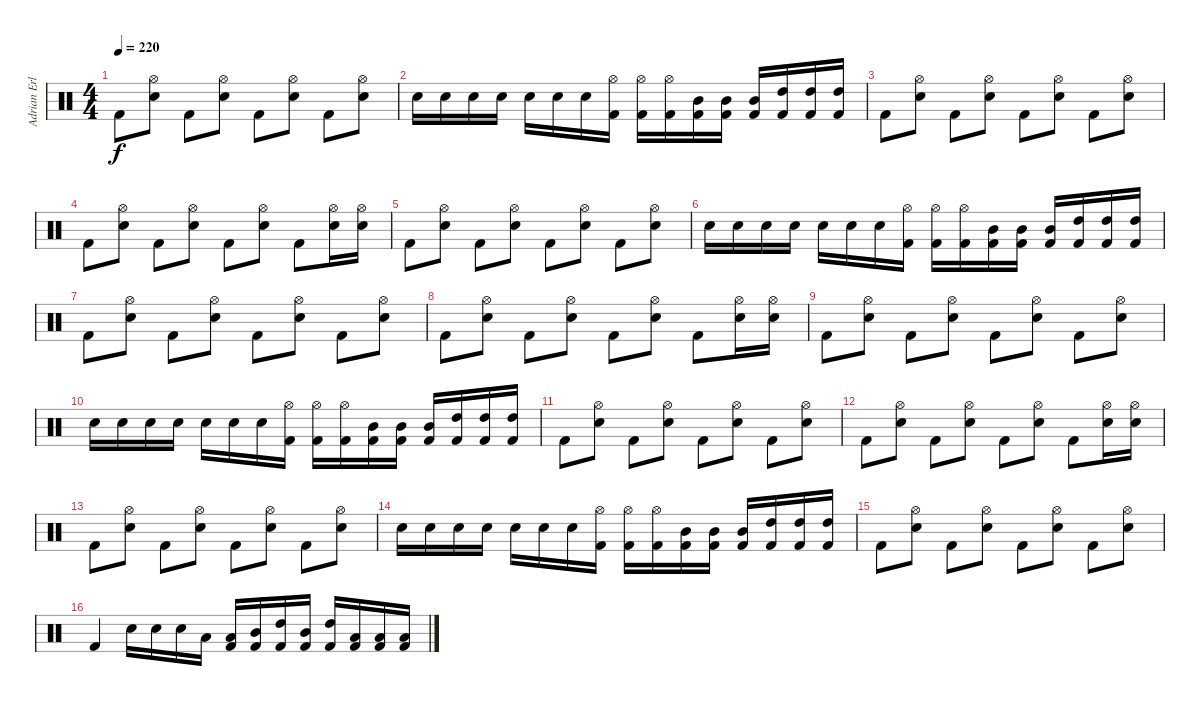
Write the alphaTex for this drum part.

\track ("Adrian Erlandsson" "Adrian Erl") {instrument percussion}
\staff {score}
\articulation defaults
\ts (4 4)
\tempo 220
\clef neutral
\ks c "Kick (hit) 2".8{dy f}
("Hi-Hat (open)" "Snare (hit) 2").8 "Kick (hit) 2".8 ("Hi-Hat (open)" "Snare (hit) 2").8 "Kick (hit) 2".8 ("Hi-Hat (open)" "Snare (hit) 2").8 "Kick (hit) 2".8 ("Hi-Hat (open)" "Snare (hit) 2").8 |
"Snare (hit) 2".16 "Snare (hit) 2".16 "Snare (hit) 2".16 "Snare (hit) 2".16 "Snare (hit) 2".16 "Snare (hit) 2".16 "Snare (hit) 2".16 ("Hi-Hat (open)" "Kick (hit) 2").16 ("Hi-Hat (open)" "Kick (hit) 2").16 ("Hi-Hat (open)" "Kick (hit) 2").16 ("Mid Tom (hit)" "Kick (hit) 2").16 ("Mid Tom (hit)" "Kick (hit) 2").16 ("Mid Tom (hit)" "Kick (hit) 2").16 ("High Tom (hit)" "Kick (hit) 2").16 ("High Tom (hit)" "Kick (hit) 2").16 ("High Tom (hit)" "Kick (hit) 2").16 |
"Kick (hit) 2".8 ("Hi-Hat (open)" "Snare (hit) 2").8 "Kick (hit) 2".8 ("Hi-Hat (open)" "Snare (hit) 2").8 "Kick (hit) 2".8 ("Hi-Hat (open)" "Snare (hit) 2").8 "Kick (hit) 2".8 ("Hi-Hat (open)" "Snare (hit) 2").8 |
"Kick (hit) 2".8 ("Hi-Hat (open)" "Snare (hit) 2").8 "Kick (hit) 2".8 ("Hi-Hat (open)" "Snare (hit) 2").8 "Kick (hit) 2".8 ("Hi-Hat (open)" "Snare (hit) 2").8 "Kick (hit) 2".8 ("Hi-Hat (open)" "Snare (hit) 2").16 ("Hi-Hat (open)" "Snare (hit) 2").16 |
"Kick (hit) 2".8 ("Hi-Hat (open)" "Snare (hit) 2").8 "Kick (hit) 2".8 ("Hi-Hat (open)" "Snare (hit) 2").8 "Kick (hit) 2".8 ("Hi-Hat (open)" "Snare (hit) 2").8 "Kick (hit) 2".8 ("Hi-Hat (open)" "Snare (hit) 2").8 |
"Snare (hit) 2".16 "Snare (hit) 2".16 "Snare (hit) 2".16 "Snare (hit) 2".16 "Snare (hit) 2".16 "Snare (hit) 2".16 "Snare (hit) 2".16 ("Hi-Hat (open)" "Kick (hit) 2").16 ("Hi-Hat (open)" "Kick (hit) 2").16 ("Hi-Hat (open)" "Kick (hit) 2").16 ("Mid Tom (hit)" "Kick (hit) 2").16 ("Mid Tom (hit)" "Kick (hit) 2").16 ("Mid Tom (hit)" "Kick (hit) 2").16 ("High Tom (hit)" "Kick (hit) 2").16 ("High Tom (hit)" "Kick (hit) 2").16 ("High Tom (hit)" "Kick (hit) 2").16 |
"Kick (hit) 2".8 ("Hi-Hat (open)" "Snare (hit) 2").8 "Kick (hit) 2".8 ("Hi-Hat (open)" "Snare (hit) 2").8 "Kick (hit) 2".8 ("Hi-Hat (open)" "Snare (hit) 2").8 "Kick (hit) 2".8 ("Hi-Hat (open)" "Snare (hit) 2").8 |
"Kick (hit) 2".8 ("Hi-Hat (open)" "Snare (hit) 2").8 "Kick (hit) 2".8 ("Hi-Hat (open)" "Snare (hit) 2").8 "Kick (hit) 2".8 ("Hi-Hat (open)" "Snare (hit) 2").8 "Kick (hit) 2".8 ("Hi-Hat (open)" "Snare (hit) 2").16 ("Hi-Hat (open)" "Snare (hit) 2").16 |
"Kick (hit) 2".8 ("Hi-Hat (open)" "Snare (hit) 2").8 "Kick (hit) 2".8 ("Hi-Hat (open)" "Snare (hit) 2").8 "Kick (hit) 2".8 ("Hi-Hat (open)" "Snare (hit) 2").8 "Kick (hit) 2".8 ("Hi-Hat (open)" "Snare (hit) 2").8 |
"Snare (hit) 2".16 "Snare (hit) 2".16 "Snare (hit) 2".16 "Snare (hit) 2".16 "Snare (hit) 2".16 "Snare (hit) 2".16 "Snare (hit) 2".16 ("Hi-Hat (open)" "Kick (hit) 2").16 ("Hi-Hat (open)" "Kick (hit) 2").16 ("Hi-Hat (open)" "Kick (hit) 2").16 ("Mid Tom (hit)" "Kick (hit) 2").16 ("Mid Tom (hit)" "Kick (hit) 2").16 ("Mid Tom (hit)" "Kick (hit) 2").16 ("High Tom (hit)" "Kick (hit) 2").16 ("High Tom (hit)" "Kick (hit) 2").16 ("High Tom (hit)" "Kick (hit) 2").16 |
"Kick (hit) 2".8 ("Hi-Hat (open)" "Snare (hit) 2").8 "Kick (hit) 2".8 ("Hi-Hat (open)" "Snare (hit) 2").8 "Kick (hit) 2".8 ("Hi-Hat (open)" "Snare (hit) 2").8 "Kick (hit) 2".8 ("Hi-Hat (open)" "Snare (hit) 2").8 |
"Kick (hit) 2".8 ("Hi-Hat (open)" "Snare (hit) 2").8 "Kick (hit) 2".8 ("Hi-Hat (open)" "Snare (hit) 2").8 "Kick (hit) 2".8 ("Hi-Hat (open)" "Snare (hit) 2").8 "Kick (hit) 2".8 ("Hi-Hat (open)" "Snare (hit) 2").16 ("Hi-Hat (open)" "Snare (hit) 2").16 |
"Kick (hit) 2".8 ("Hi-Hat (open)" "Snare (hit) 2").8 "Kick (hit) 2".8 ("Hi-Hat (open)" "Snare (hit) 2").8 "Kick (hit) 2".8 ("Hi-Hat (open)" "Snare (hit) 2").8 "Kick (hit) 2".8 ("Hi-Hat (open)" "Snare (hit) 2").8 |
"Snare (hit) 2".16 "Snare (hit) 2".16 "Snare (hit) 2".16 "Snare (hit) 2".16 "Snare (hit) 2".16 "Snare (hit) 2".16 "Snare (hit) 2".16 ("Hi-Hat (open)" "Kick (hit) 2").16 ("Hi-Hat (open)" "Kick (hit) 2").16 ("Hi-Hat (open)" "Kick (hit) 2").16 ("Mid Tom (hit)" "Kick (hit) 2").16 ("Mid Tom (hit)" "Kick (hit) 2").16 ("Mid Tom (hit)" "Kick (hit) 2").16 ("High Tom (hit)" "Kick (hit) 2").16 ("High Tom (hit)" "Kick (hit) 2").16 ("High Tom (hit)" "Kick (hit) 2").16 |
"Kick (hit) 2".8 ("Hi-Hat (open)" "Snare (hit) 2").8 "Kick (hit) 2".8 ("Hi-Hat (open)" "Snare (hit) 2").8 "Kick (hit) 2".8 ("Hi-Hat (open)" "Snare (hit) 2").8 "Kick (hit) 2".8 ("Hi-Hat (open)" "Snare (hit) 2").8 |
"Kick (hit) 2".4 "Snare (hit) 2".16 "Snare (hit) 2".16 "Snare (hit) 2".16 "Low Tom (hit)".16 ("Low Tom (hit)" "Kick (hit) 2").16 ("Mid Tom (hit)" "Kick (hit) 2").16 ("High Tom (hit)" "Kick (hit) 2").16 ("Mid Tom (hit)" "Kick (hit) 2").16 ("High Tom (hit)" "Kick (hit) 2").16 ("Low Tom (hit)" "Kick (hit) 2").16 ("Low Tom (hit)" "Kick (hit) 2").16 ("Low Tom (hit)" "Kick (hit) 2").16
